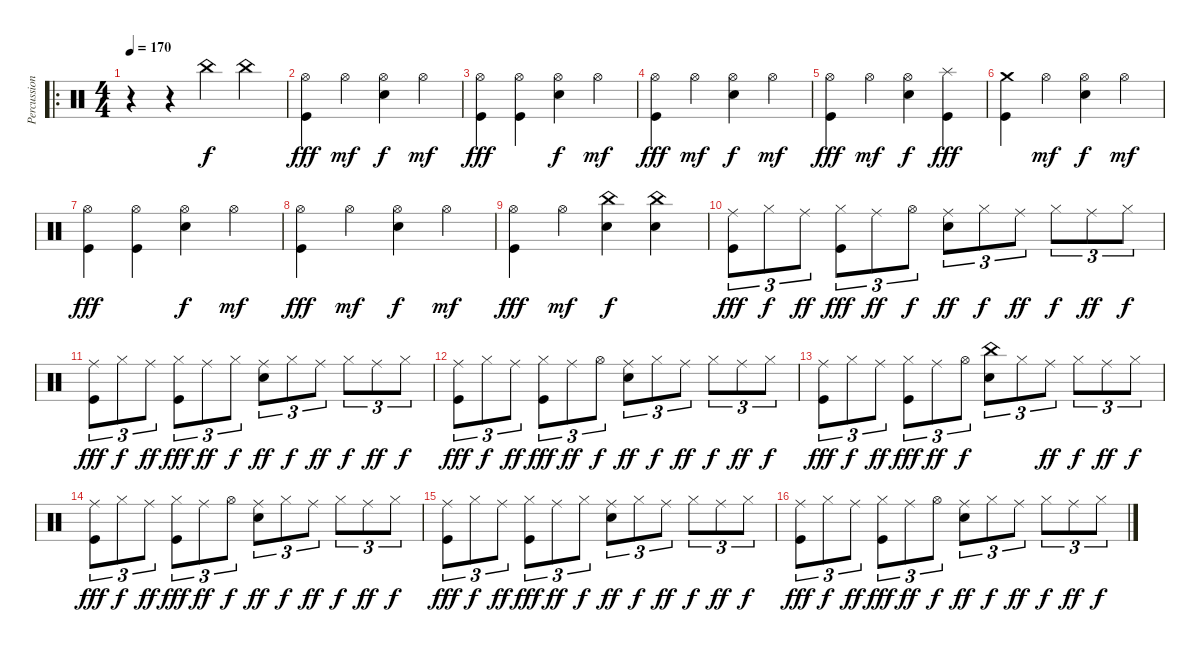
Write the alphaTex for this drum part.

\track ("Percussion" "Percussion") {instrument percussion}
\staff {score}
\articulation defaults
\ro
\ts (4 4)
\tempo 170
\clef neutral
\ks c
r.4{dy f} r.4 "China (hit)".4 "China (hit)".4 |
("Hi-Hat (open)" "Kick (hit)").4{dy fff} "Hi-Hat (open)".4{dy mf} ("Hi-Hat (open)" "Electric Snare (hit)").4{dy f} "Hi-Hat (open)".4{dy mf} |
("Hi-Hat (open)" "Kick (hit)").4{dy fff} ("Hi-Hat (open)" "Kick (hit)").4 ("Hi-Hat (open)" "Electric Snare (hit)").4{dy f} "Hi-Hat (open)".4{dy mf} |
("Hi-Hat (open)" "Kick (hit)").4{dy fff} "Hi-Hat (open)".4{dy mf} ("Hi-Hat (open)" "Electric Snare (hit)").4{dy f} "Hi-Hat (open)".4{dy mf} |
("Hi-Hat (open)" "Kick (hit)").4{dy fff} "Hi-Hat (open)".4{dy mf} ("Hi-Hat (open)" "Electric Snare (hit)").4{dy f} ("Splash (hit)" "Kick (hit)").4{dy fff} |
("Crash medium (hit)" "Kick (hit)").4 "Hi-Hat (open)".4{dy mf} ("Hi-Hat (open)" "Electric Snare (hit)").4{dy f} "Hi-Hat (open)".4{dy mf} |
("Hi-Hat (open)" "Kick (hit)").4{dy fff} ("Hi-Hat (open)" "Kick (hit)").4 ("Hi-Hat (open)" "Electric Snare (hit)").4{dy f} "Hi-Hat (open)".4{dy mf} |
("Hi-Hat (open)" "Kick (hit)").4{dy fff} "Hi-Hat (open)".4{dy mf} ("Hi-Hat (open)" "Electric Snare (hit)").4{dy f} "Hi-Hat (open)".4{dy mf} |
("Hi-Hat (open)" "Kick (hit)").4{dy fff} "Hi-Hat (open)".4{dy mf} ("China (hit)" "Electric Snare (hit)").4{dy f} ("China (hit)" "Electric Snare (hit)").4 |
("Ride (middle)" "Kick (hit)").8{tu (3 2) dy fff} "Hi-Hat (closed)".8{tu (3 2) dy f} "Ride (middle)".8{tu (3 2) dy ff} ("Hi-Hat (closed)" "Kick (hit)").8{tu (3 2) dy fff} "Ride (middle)".8{tu (3 2) dy ff} "Hi-Hat (open)".8{tu (3 2) dy f} ("Ride (middle)" "Electric Snare (hit)").8{tu (3 2) dy ff} "Hi-Hat (closed)".8{tu (3 2) dy f} "Ride (middle)".8{tu (3 2) dy ff} "Hi-Hat (closed)".8{tu (3 2) dy f} "Ride (middle)".8{tu (3 2) dy ff} "Hi-Hat (closed)".8{tu (3 2) dy f} |
("Ride (middle)" "Kick (hit)").8{tu (3 2) dy fff} "Hi-Hat (closed)".8{tu (3 2) dy f} "Ride (middle)".8{tu (3 2) dy ff} ("Hi-Hat (closed)" "Kick (hit)").8{tu (3 2) dy fff} "Ride (middle)".8{tu (3 2) dy ff} "Hi-Hat (closed)".8{tu (3 2) dy f} ("Ride (middle)" "Electric Snare (hit)").8{tu (3 2) dy ff} "Hi-Hat (closed)".8{tu (3 2) dy f} "Ride (middle)".8{tu (3 2) dy ff} "Hi-Hat (closed)".8{tu (3 2) dy f} "Ride (middle)".8{tu (3 2) dy ff} "Hi-Hat (closed)".8{tu (3 2) dy f} |
("Ride (middle)" "Kick (hit)").8{tu (3 2) dy fff} "Hi-Hat (closed)".8{tu (3 2) dy f} "Ride (middle)".8{tu (3 2) dy ff} ("Hi-Hat (closed)" "Kick (hit)").8{tu (3 2) dy fff} "Ride (middle)".8{tu (3 2) dy ff} "Hi-Hat (open)".8{tu (3 2) dy f} ("Ride (middle)" "Electric Snare (hit)").8{tu (3 2) dy ff} "Hi-Hat (closed)".8{tu (3 2) dy f} "Ride (middle)".8{tu (3 2) dy ff} "Hi-Hat (closed)".8{tu (3 2) dy f} "Ride (middle)".8{tu (3 2) dy ff} "Hi-Hat (closed)".8{tu (3 2) dy f} |
("Ride (middle)" "Kick (hit)").8{tu (3 2) dy fff} "Hi-Hat (closed)".8{tu (3 2) dy f} "Ride (middle)".8{tu (3 2) dy ff} ("Hi-Hat (closed)" "Kick (hit)").8{tu (3 2) dy fff} "Ride (middle)".8{tu (3 2) dy ff} "Hi-Hat (open)".8{tu (3 2) dy f} ("China (hit)" "Electric Snare (hit)").8{tu (3 2)} "Hi-Hat (closed)".8{tu (3 2)} "Ride (middle)".8{tu (3 2) dy ff} "Hi-Hat (closed)".8{tu (3 2) dy f} "Ride (middle)".8{tu (3 2) dy ff} "Hi-Hat (closed)".8{tu (3 2) dy f} |
("Ride (middle)" "Kick (hit)").8{tu (3 2) dy fff} "Hi-Hat (closed)".8{tu (3 2) dy f} "Ride (middle)".8{tu (3 2) dy ff} ("Hi-Hat (closed)" "Kick (hit)").8{tu (3 2) dy fff} "Ride (middle)".8{tu (3 2) dy ff} "Hi-Hat (open)".8{tu (3 2) dy f} ("Ride (middle)" "Electric Snare (hit)").8{tu (3 2) dy ff} "Hi-Hat (closed)".8{tu (3 2) dy f} "Ride (middle)".8{tu (3 2) dy ff} "Hi-Hat (closed)".8{tu (3 2) dy f} "Ride (middle)".8{tu (3 2) dy ff} "Hi-Hat (closed)".8{tu (3 2) dy f} |
("Ride (middle)" "Kick (hit)").8{tu (3 2) dy fff} "Hi-Hat (closed)".8{tu (3 2) dy f} "Ride (middle)".8{tu (3 2) dy ff} ("Hi-Hat (closed)" "Kick (hit)").8{tu (3 2) dy fff} "Ride (middle)".8{tu (3 2) dy ff} "Hi-Hat (closed)".8{tu (3 2) dy f} ("Ride (middle)" "Electric Snare (hit)").8{tu (3 2) dy ff} "Hi-Hat (closed)".8{tu (3 2) dy f} "Ride (middle)".8{tu (3 2) dy ff} "Hi-Hat (closed)".8{tu (3 2) dy f} "Ride (middle)".8{tu (3 2) dy ff} "Hi-Hat (closed)".8{tu (3 2) dy f} |
("Ride (middle)" "Kick (hit)").8{tu (3 2) dy fff} "Hi-Hat (closed)".8{tu (3 2) dy f} "Ride (middle)".8{tu (3 2) dy ff} ("Hi-Hat (closed)" "Kick (hit)").8{tu (3 2) dy fff} "Ride (middle)".8{tu (3 2) dy ff} "Hi-Hat (open)".8{tu (3 2) dy f} ("Ride (middle)" "Electric Snare (hit)").8{tu (3 2) dy ff} "Hi-Hat (closed)".8{tu (3 2) dy f} "Ride (middle)".8{tu (3 2) dy ff} "Hi-Hat (closed)".8{tu (3 2) dy f} "Ride (middle)".8{tu (3 2) dy ff} "Hi-Hat (closed)".8{tu (3 2) dy f}
